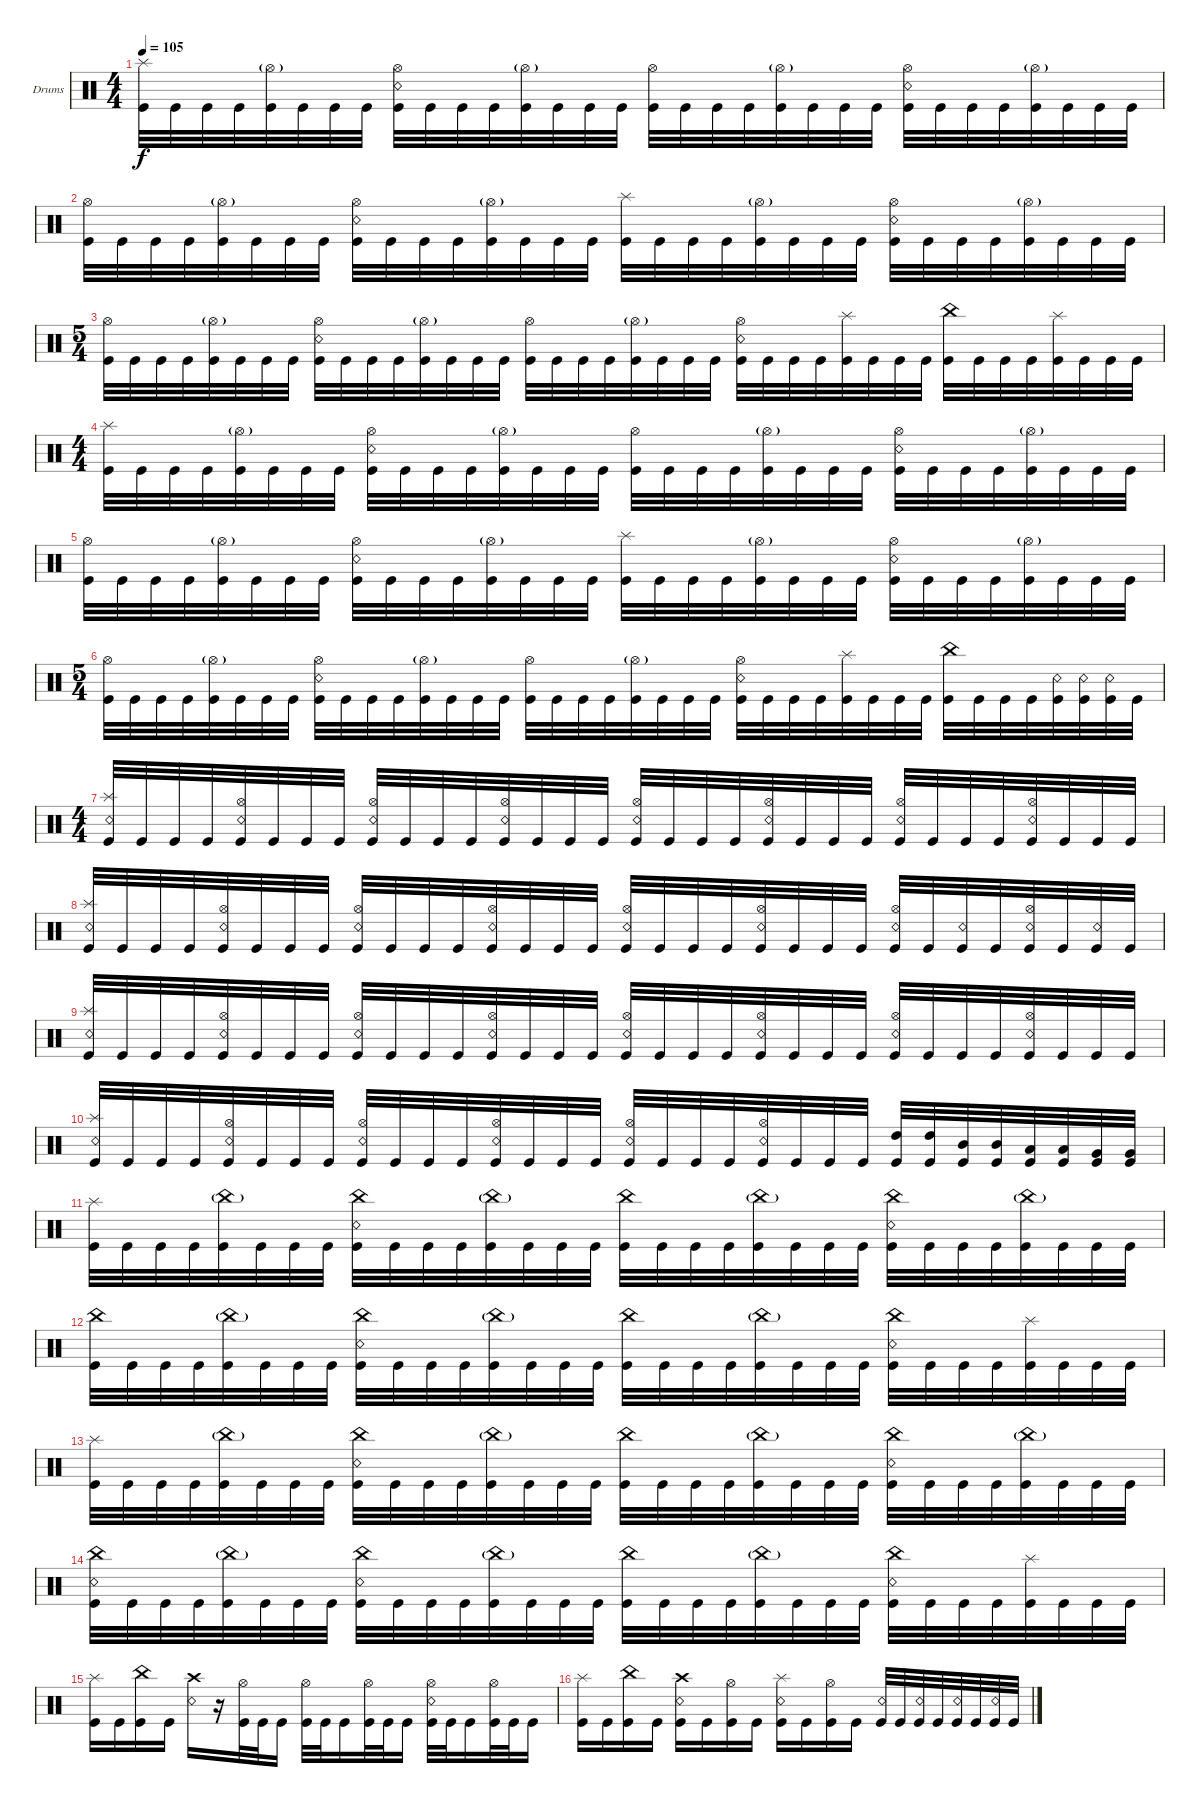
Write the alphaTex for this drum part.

\defaultSystemsLayout 4
\bracketExtendMode groupsimilarinstruments
\firstSystemTrackNameOrientation horizontal
\otherSystemsTrackNameOrientation horizontal
\track ("Drumkit" "Drums") {instrument percussion}
\staff {score}
\articulation defaults
\ts (4 4)
\tempo 105
\clef neutral
\ks c
("Kick (hit)" "Splash (hit)").32{dy f} "Kick (hit)".32 "Kick (hit)".32 "Kick (hit)".32 ("Kick (hit)" "Hi-Hat (open)"{g}).32 "Kick (hit)".32 "Kick (hit)".32 "Kick (hit)".32 ("Kick (hit)" "Snare (rim shot)" "Hi-Hat (open)").32 "Kick (hit)".32 "Kick (hit)".32 "Kick (hit)".32 ("Kick (hit)" "Hi-Hat (open)"{g}).32 "Kick (hit)".32 "Kick (hit)".32 "Kick (hit)".32 ("Kick (hit)" "Hi-Hat (open)").32 "Kick (hit)".32 "Kick (hit)".32 "Kick (hit)".32 ("Kick (hit)" "Hi-Hat (open)"{g}).32 "Kick (hit)".32 "Kick (hit)".32 "Kick (hit)".32 ("Kick (hit)" "Snare (rim shot)" "Hi-Hat (open)").32 "Kick (hit)".32 "Kick (hit)".32 "Kick (hit)".32 ("Kick (hit)" "Hi-Hat (open)"{g}).32 "Kick (hit)".32 "Kick (hit)".32 "Kick (hit)".32 |
("Kick (hit)" "Hi-Hat (open)").32 "Kick (hit)".32 "Kick (hit)".32 "Kick (hit)".32 ("Kick (hit)" "Hi-Hat (open)"{g}).32 "Kick (hit)".32 "Kick (hit)".32 "Kick (hit)".32 ("Kick (hit)" "Snare (rim shot)" "Hi-Hat (open)").32 "Kick (hit)".32 "Kick (hit)".32 "Kick (hit)".32 ("Kick (hit)" "Hi-Hat (open)"{g}).32 "Kick (hit)".32 "Kick (hit)".32 "Kick (hit)".32 ("Kick (hit)" "Splash (hit)").32 "Kick (hit)".32 "Kick (hit)".32 "Kick (hit)".32 ("Kick (hit)" "Hi-Hat (open)"{g}).32 "Kick (hit)".32 "Kick (hit)".32 "Kick (hit)".32 ("Kick (hit)" "Snare (rim shot)" "Hi-Hat (open)").32 "Kick (hit)".32 "Kick (hit)".32 "Kick (hit)".32 ("Kick (hit)" "Hi-Hat (open)"{g}).32 "Kick (hit)".32 "Kick (hit)".32 "Kick (hit)".32 |
\ts (5 4)
("Kick (hit)" "Hi-Hat (open)").32 "Kick (hit)".32 "Kick (hit)".32 "Kick (hit)".32 ("Kick (hit)" "Hi-Hat (open)"{g}).32 "Kick (hit)".32 "Kick (hit)".32 "Kick (hit)".32{beam split} ("Kick (hit)" "Snare (rim shot)" "Hi-Hat (open)").32 "Kick (hit)".32 "Kick (hit)".32 "Kick (hit)".32 ("Kick (hit)" "Hi-Hat (open)"{g}).32 "Kick (hit)".32 "Kick (hit)".32 "Kick (hit)".32{beam split} ("Kick (hit)" "Hi-Hat (open)").32 "Kick (hit)".32 "Kick (hit)".32 "Kick (hit)".32 ("Kick (hit)" "Hi-Hat (open)"{g}).32 "Kick (hit)".32 "Kick (hit)".32 "Kick (hit)".32 ("Kick (hit)" "Snare (rim shot)" "Hi-Hat (open)").32 "Kick (hit)".32 "Kick (hit)".32 "Kick (hit)".32 ("Kick (hit)" "Splash (hit)").32 "Kick (hit)".32 "Kick (hit)".32 "Kick (hit)".32{beam split} ("Kick (hit)" "China (hit)").32 "Kick (hit)".32 "Kick (hit)".32 "Kick (hit)".32 ("Kick (hit)" "Splash (hit)").32 "Kick (hit)".32 "Kick (hit)".32 "Kick (hit)".32 |
\ts (4 4)
("Kick (hit)" "Splash (hit)").32 "Kick (hit)".32 "Kick (hit)".32 "Kick (hit)".32 ("Kick (hit)" "Hi-Hat (open)"{g}).32 "Kick (hit)".32 "Kick (hit)".32 "Kick (hit)".32 ("Kick (hit)" "Snare (rim shot)" "Hi-Hat (open)").32 "Kick (hit)".32 "Kick (hit)".32 "Kick (hit)".32 ("Kick (hit)" "Hi-Hat (open)"{g}).32 "Kick (hit)".32 "Kick (hit)".32 "Kick (hit)".32 ("Kick (hit)" "Hi-Hat (open)").32 "Kick (hit)".32 "Kick (hit)".32 "Kick (hit)".32 ("Kick (hit)" "Hi-Hat (open)"{g}).32 "Kick (hit)".32 "Kick (hit)".32 "Kick (hit)".32 ("Kick (hit)" "Snare (rim shot)" "Hi-Hat (open)").32 "Kick (hit)".32 "Kick (hit)".32 "Kick (hit)".32 ("Kick (hit)" "Hi-Hat (open)"{g}).32 "Kick (hit)".32 "Kick (hit)".32 "Kick (hit)".32 |
("Kick (hit)" "Hi-Hat (open)").32 "Kick (hit)".32 "Kick (hit)".32 "Kick (hit)".32 ("Kick (hit)" "Hi-Hat (open)"{g}).32 "Kick (hit)".32 "Kick (hit)".32 "Kick (hit)".32 ("Kick (hit)" "Snare (rim shot)" "Hi-Hat (open)").32 "Kick (hit)".32 "Kick (hit)".32 "Kick (hit)".32 ("Kick (hit)" "Hi-Hat (open)"{g}).32 "Kick (hit)".32 "Kick (hit)".32 "Kick (hit)".32 ("Kick (hit)" "Splash (hit)").32 "Kick (hit)".32 "Kick (hit)".32 "Kick (hit)".32 ("Kick (hit)" "Hi-Hat (open)"{g}).32 "Kick (hit)".32 "Kick (hit)".32 "Kick (hit)".32 ("Kick (hit)" "Snare (rim shot)" "Hi-Hat (open)").32 "Kick (hit)".32 "Kick (hit)".32 "Kick (hit)".32 ("Kick (hit)" "Hi-Hat (open)"{g}).32 "Kick (hit)".32 "Kick (hit)".32 "Kick (hit)".32 |
\ts (5 4)
("Kick (hit)" "Hi-Hat (open)").32 "Kick (hit)".32 "Kick (hit)".32 "Kick (hit)".32 ("Kick (hit)" "Hi-Hat (open)"{g}).32 "Kick (hit)".32 "Kick (hit)".32 "Kick (hit)".32{beam split} ("Kick (hit)" "Snare (rim shot)" "Hi-Hat (open)").32 "Kick (hit)".32 "Kick (hit)".32 "Kick (hit)".32 ("Kick (hit)" "Hi-Hat (open)"{g}).32 "Kick (hit)".32 "Kick (hit)".32 "Kick (hit)".32{beam split} ("Kick (hit)" "Hi-Hat (open)").32 "Kick (hit)".32 "Kick (hit)".32 "Kick (hit)".32 ("Kick (hit)" "Hi-Hat (open)"{g}).32 "Kick (hit)".32 "Kick (hit)".32 "Kick (hit)".32 ("Kick (hit)" "Snare (rim shot)" "Hi-Hat (open)").32 "Kick (hit)".32 "Kick (hit)".32 "Kick (hit)".32 ("Kick (hit)" "Splash (hit)").32 "Kick (hit)".32 "Kick (hit)".32 "Kick (hit)".32{beam split} ("Kick (hit)" "China (hit)").32 "Kick (hit)".32 "Kick (hit)".32 "Kick (hit)".32 ("Kick (hit)" "Snare (rim shot)").32 ("Kick (hit)" "Snare (rim shot)").32 ("Kick (hit)" "Snare (rim shot)").32 "Kick (hit)".32 |
\ts (4 4)
("Kick (hit)" "Snare (rim shot)" "Splash (hit)").32 "Kick (hit)".32 "Kick (hit)".32 "Kick (hit)".32 ("Kick (hit)" "Snare (rim shot)" "Hi-Hat (open)").32 "Kick (hit)".32 "Kick (hit)".32 "Kick (hit)".32 ("Kick (hit)" "Snare (rim shot)" "Hi-Hat (open)").32 "Kick (hit)".32 "Kick (hit)".32 "Kick (hit)".32 ("Kick (hit)" "Snare (rim shot)" "Hi-Hat (open)").32 "Kick (hit)".32 "Kick (hit)".32 "Kick (hit)".32 ("Kick (hit)" "Snare (rim shot)" "Hi-Hat (open)").32 "Kick (hit)".32 "Kick (hit)".32 "Kick (hit)".32 ("Kick (hit)" "Snare (rim shot)" "Hi-Hat (open)").32 "Kick (hit)".32 "Kick (hit)".32 "Kick (hit)".32 ("Kick (hit)" "Snare (rim shot)" "Hi-Hat (open)").32 "Kick (hit)".32 "Kick (hit)".32 "Kick (hit)".32 ("Kick (hit)" "Snare (rim shot)" "Hi-Hat (open)").32 "Kick (hit)".32 "Kick (hit)".32 "Kick (hit)".32 |
("Kick (hit)" "Snare (rim shot)" "Splash (hit)").32 "Kick (hit)".32 "Kick (hit)".32 "Kick (hit)".32 ("Kick (hit)" "Snare (rim shot)" "Hi-Hat (open)").32 "Kick (hit)".32 "Kick (hit)".32 "Kick (hit)".32 ("Kick (hit)" "Snare (rim shot)" "Hi-Hat (open)").32 "Kick (hit)".32 "Kick (hit)".32 "Kick (hit)".32 ("Kick (hit)" "Snare (rim shot)" "Hi-Hat (open)").32 "Kick (hit)".32 "Kick (hit)".32 "Kick (hit)".32 ("Kick (hit)" "Snare (rim shot)" "Hi-Hat (open)").32 "Kick (hit)".32 "Kick (hit)".32 "Kick (hit)".32 ("Kick (hit)" "Snare (rim shot)" "Hi-Hat (open)").32 "Kick (hit)".32 "Kick (hit)".32 "Kick (hit)".32 ("Kick (hit)" "Snare (rim shot)" "Hi-Hat (open)").32 "Kick (hit)".32 ("Kick (hit)" "Snare (rim shot)").32 "Kick (hit)".32 ("Kick (hit)" "Snare (rim shot)" "Hi-Hat (open)").32 "Kick (hit)".32 ("Kick (hit)" "Snare (rim shot)").32 "Kick (hit)".32 |
("Kick (hit)" "Snare (rim shot)" "Splash (hit)").32 "Kick (hit)".32 "Kick (hit)".32 "Kick (hit)".32 ("Kick (hit)" "Snare (rim shot)" "Hi-Hat (open)").32 "Kick (hit)".32 "Kick (hit)".32 "Kick (hit)".32 ("Kick (hit)" "Snare (rim shot)" "Hi-Hat (open)").32 "Kick (hit)".32 "Kick (hit)".32 "Kick (hit)".32 ("Kick (hit)" "Snare (rim shot)" "Hi-Hat (open)").32 "Kick (hit)".32 "Kick (hit)".32 "Kick (hit)".32 ("Kick (hit)" "Snare (rim shot)" "Hi-Hat (open)").32 "Kick (hit)".32 "Kick (hit)".32 "Kick (hit)".32 ("Kick (hit)" "Snare (rim shot)" "Hi-Hat (open)").32 "Kick (hit)".32 "Kick (hit)".32 "Kick (hit)".32 ("Kick (hit)" "Snare (rim shot)" "Hi-Hat (open)").32 "Kick (hit)".32 "Kick (hit)".32 "Kick (hit)".32 ("Kick (hit)" "Snare (rim shot)" "Hi-Hat (open)").32 "Kick (hit)".32 "Kick (hit)".32 "Kick (hit)".32 |
("Kick (hit)" "Snare (rim shot)" "Splash (hit)").32 "Kick (hit)".32 "Kick (hit)".32 "Kick (hit)".32 ("Kick (hit)" "Snare (rim shot)" "Hi-Hat (open)").32 "Kick (hit)".32 "Kick (hit)".32 "Kick (hit)".32 ("Kick (hit)" "Snare (rim shot)" "Hi-Hat (open)").32 "Kick (hit)".32 "Kick (hit)".32 "Kick (hit)".32 ("Kick (hit)" "Snare (rim shot)" "Hi-Hat (open)").32 "Kick (hit)".32 "Kick (hit)".32 "Kick (hit)".32 ("Kick (hit)" "Snare (rim shot)" "Hi-Hat (open)").32 "Kick (hit)".32 "Kick (hit)".32 "Kick (hit)".32 ("Kick (hit)" "Snare (rim shot)" "Hi-Hat (open)").32 "Kick (hit)".32 "Kick (hit)".32 "Kick (hit)".32 ("Kick (hit)" "High Tom (hit)").32 ("Kick (hit)" "High Tom (hit)").32 ("Kick (hit)" "Mid Tom (hit)").32 ("Kick (hit)" "Mid Tom (hit)").32 ("Kick (hit)" "Low Tom (hit)").32 ("Kick (hit)" "Low Tom (hit)").32 ("Kick (hit)" "Very Low Tom (hit)").32 ("Kick (hit)" "Very Low Tom (hit)").32 |
("Kick (hit)" "Splash (hit)").32 "Kick (hit)".32 "Kick (hit)".32 "Kick (hit)".32 ("Kick (hit)" "China (hit)"{g}).32 "Kick (hit)".32 "Kick (hit)".32 "Kick (hit)".32 ("Kick (hit)" "Snare (rim shot)" "China (hit)").32 "Kick (hit)".32 "Kick (hit)".32 "Kick (hit)".32 ("Kick (hit)" "China (hit)"{g}).32 "Kick (hit)".32 "Kick (hit)".32 "Kick (hit)".32 ("Kick (hit)" "China (hit)").32 "Kick (hit)".32 "Kick (hit)".32 "Kick (hit)".32 ("Kick (hit)" "China (hit)"{g}).32 "Kick (hit)".32 "Kick (hit)".32 "Kick (hit)".32 ("Kick (hit)" "Snare (rim shot)" "China (hit)").32 "Kick (hit)".32 "Kick (hit)".32 "Kick (hit)".32 ("Kick (hit)" "China (hit)"{g}).32 "Kick (hit)".32 "Kick (hit)".32 "Kick (hit)".32 |
("Kick (hit)" "China (hit)").32 "Kick (hit)".32 "Kick (hit)".32 "Kick (hit)".32 ("Kick (hit)" "China (hit)"{g}).32 "Kick (hit)".32 "Kick (hit)".32 "Kick (hit)".32 ("Kick (hit)" "Snare (rim shot)" "China (hit)").32 "Kick (hit)".32 "Kick (hit)".32 "Kick (hit)".32 ("Kick (hit)" "China (hit)"{g}).32 "Kick (hit)".32 "Kick (hit)".32 "Kick (hit)".32 ("Kick (hit)" "China (hit)").32 "Kick (hit)".32 "Kick (hit)".32 "Kick (hit)".32 ("Kick (hit)" "China (hit)"{g}).32 "Kick (hit)".32 "Kick (hit)".32 "Kick (hit)".32 ("Kick (hit)" "Snare (rim shot)" "China (hit)").32 "Kick (hit)".32 "Kick (hit)".32 "Kick (hit)".32 ("Kick (hit)" "Splash (hit)").32 "Kick (hit)".32 "Kick (hit)".32 "Kick (hit)".32 |
("Kick (hit)" "Splash (hit)").32 "Kick (hit)".32 "Kick (hit)".32 "Kick (hit)".32 ("Kick (hit)" "China (hit)"{g}).32 "Kick (hit)".32 "Kick (hit)".32 "Kick (hit)".32 ("Kick (hit)" "Snare (rim shot)" "China (hit)").32 "Kick (hit)".32 "Kick (hit)".32 "Kick (hit)".32 ("Kick (hit)" "China (hit)"{g}).32 "Kick (hit)".32 "Kick (hit)".32 "Kick (hit)".32 ("Kick (hit)" "China (hit)").32 "Kick (hit)".32 "Kick (hit)".32 "Kick (hit)".32 ("Kick (hit)" "China (hit)"{g}).32 "Kick (hit)".32 "Kick (hit)".32 "Kick (hit)".32 ("Kick (hit)" "Snare (rim shot)" "China (hit)").32 "Kick (hit)".32 "Kick (hit)".32 "Kick (hit)".32 ("Kick (hit)" "China (hit)"{g}).32 "Kick (hit)".32 "Kick (hit)".32 "Kick (hit)".32 |
("Kick (hit)" "China (hit)" "Snare (rim shot)").32 "Kick (hit)".32 "Kick (hit)".32 "Kick (hit)".32 ("Kick (hit)" "China (hit)"{g}).32 "Kick (hit)".32 "Kick (hit)".32 "Kick (hit)".32 ("Kick (hit)" "Snare (rim shot)" "China (hit)").32 "Kick (hit)".32 "Kick (hit)".32 "Kick (hit)".32 ("Kick (hit)" "China (hit)"{g}).32 "Kick (hit)".32 "Kick (hit)".32 "Kick (hit)".32 ("Kick (hit)" "China (hit)").32 "Kick (hit)".32 "Kick (hit)".32 "Kick (hit)".32 ("Kick (hit)" "China (hit)"{g}).32 "Kick (hit)".32 "Kick (hit)".32 "Kick (hit)".32 ("Kick (hit)" "Snare (rim shot)" "China (hit)").32 "Kick (hit)".32 "Kick (hit)".32 "Kick (hit)".32 ("Kick (hit)" "Splash (hit)").32 "Kick (hit)".32 "Kick (hit)".32 "Kick (hit)".32 |
("Kick (hit)" "Splash (hit)").16 "Kick (hit)".16 ("Kick (hit)" "China (hit)").16 "Kick (hit)".16 ("Snare (rim shot)" "Crash high (hit)").16 r.16 ("Kick (hit)" "Hi-Hat (open)").32 "Kick (hit)".32 "Kick (hit)".16 ("Kick (hit)" "Hi-Hat (open)").32 "Kick (hit)".32 "Kick (hit)".16 ("Kick (hit)" "Hi-Hat (open)").32 "Kick (hit)".32 "Kick (hit)".16 ("Kick (hit)" "Snare (rim shot)" "Hi-Hat (open)").32 "Kick (hit)".32 "Kick (hit)".16 ("Kick (hit)" "Hi-Hat (open)").32 "Kick (hit)".32 "Kick (hit)".16 |
("Kick (hit)" "Splash (hit)").16 "Kick (hit)".16 ("Kick (hit)" "China (hit)").16 "Kick (hit)".16 ("Kick (hit)" "Snare (rim shot)" "Crash high (hit)").16 "Kick (hit)".16 ("Kick (hit)" "Hi-Hat (open)").16 "Kick (hit)".16 ("Kick (hit)" "Snare (rim shot)" "Splash (hit)").16 "Kick (hit)".16 ("Kick (hit)" "Hi-Hat (open)").16 "Kick (hit)".16 ("Kick (hit)" "Snare (rim shot)").32 "Kick (hit)".32 ("Kick (hit)" "Snare (rim shot)").32 "Kick (hit)".32 ("Kick (hit)" "Snare (rim shot)").32 "Kick (hit)".32 ("Kick (hit)" "Snare (rim shot)").32 "Kick (hit)".32
